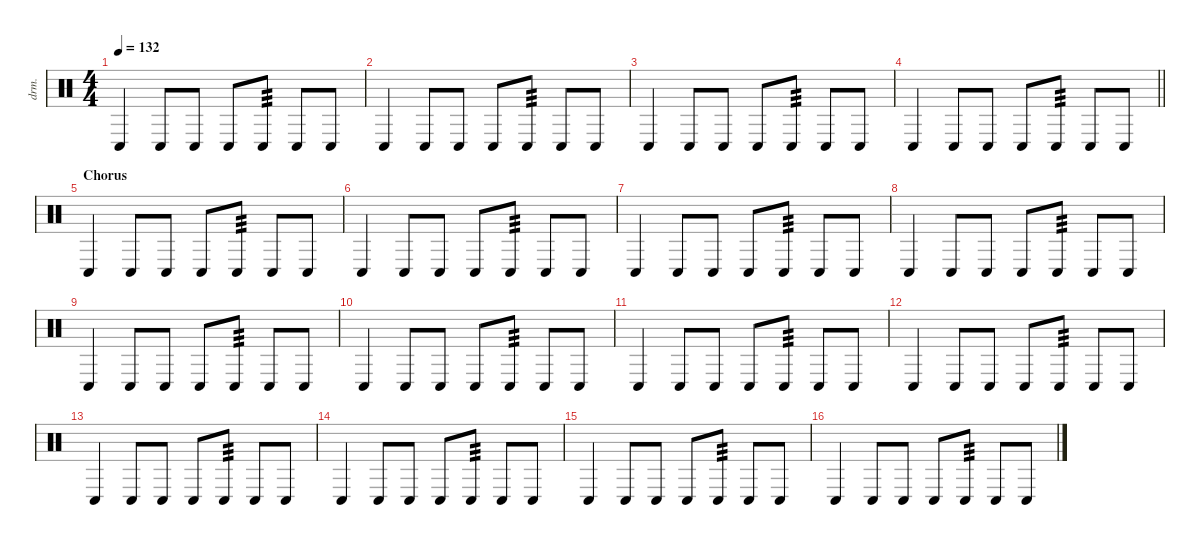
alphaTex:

\defaultSystemsLayout 4
\hideDynamics
\bracketExtendMode nobrackets
\otherSystemsTrackNameOrientation horizontal
\track ("Percussion" "drm.") {instrument percussion}
\staff {score}
\articulation defaults
\ts (4 4)
\tempo 132
\clef neutral
\ks c "Conga low (hit)".4{dy f beam Up} "Conga low (hit)".8{beam Up} "Conga low (hit)".8{beam Up} "Conga low (hit)".8{beam Up} "Conga low (hit)".8{tp 3 beam Up} "Conga low (hit)".8{beam Up} "Conga low (hit)".8{beam Up}
|
"Conga low (hit)".4{beam Up} "Conga low (hit)".8{beam Up} "Conga low (hit)".8{beam Up} "Conga low (hit)".8{beam Up} "Conga low (hit)".8{tp 3 beam Up} "Conga low (hit)".8{beam Up} "Conga low (hit)".8{beam Up} |
"Conga low (hit)".4{beam Up} "Conga low (hit)".8{beam Up} "Conga low (hit)".8{beam Up} "Conga low (hit)".8{beam Up} "Conga low (hit)".8{tp 3 beam Up} "Conga low (hit)".8{beam Up} "Conga low (hit)".8{beam Up} |
\barLineRight lightlight "Conga low (hit)".4{beam Up} "Conga low (hit)".8{beam Up} "Conga low (hit)".8{beam Up} "Conga low (hit)".8{beam Up} "Conga low (hit)".8{tp 3 beam Up} "Conga low (hit)".8{beam Up} "Conga low (hit)".8{beam Up}
|
\section ("" "Chorus")
"Conga low (hit)".4{beam Up} "Conga low (hit)".8{beam Up} "Conga low (hit)".8{beam Up} "Conga low (hit)".8{beam Up} "Conga low (hit)".8{tp 3 beam Up} "Conga low (hit)".8{beam Up} "Conga low (hit)".8{beam Up} |
"Conga low (hit)".4{beam Up} "Conga low (hit)".8{beam Up} "Conga low (hit)".8{beam Up} "Conga low (hit)".8{beam Up} "Conga low (hit)".8{tp 3 beam Up} "Conga low (hit)".8{beam Up} "Conga low (hit)".8{beam Up} |
"Conga low (hit)".4{beam Up} "Conga low (hit)".8{beam Up} "Conga low (hit)".8{beam Up} "Conga low (hit)".8{beam Up} "Conga low (hit)".8{tp 3 beam Up} "Conga low (hit)".8{beam Up} "Conga low (hit)".8{beam Up} |
"Conga low (hit)".4{beam Up} "Conga low (hit)".8{beam Up} "Conga low (hit)".8{beam Up} "Conga low (hit)".8{beam Up} "Conga low (hit)".8{tp 3 beam Up} "Conga low (hit)".8{beam Up} "Conga low (hit)".8{beam Up} |
"Conga low (hit)".4{beam Up} "Conga low (hit)".8{beam Up} "Conga low (hit)".8{beam Up} "Conga low (hit)".8{beam Up} "Conga low (hit)".8{tp 3 beam Up} "Conga low (hit)".8{beam Up} "Conga low (hit)".8{beam Up} |
"Conga low (hit)".4{beam Up} "Conga low (hit)".8{beam Up} "Conga low (hit)".8{beam Up} "Conga low (hit)".8{beam Up} "Conga low (hit)".8{tp 3 beam Up} "Conga low (hit)".8{beam Up} "Conga low (hit)".8{beam Up} |
"Conga low (hit)".4{beam Up} "Conga low (hit)".8{beam Up} "Conga low (hit)".8{beam Up} "Conga low (hit)".8{beam Up} "Conga low (hit)".8{tp 3 beam Up} "Conga low (hit)".8{beam Up} "Conga low (hit)".8{beam Up} |
"Conga low (hit)".4{beam Up} "Conga low (hit)".8{beam Up} "Conga low (hit)".8{beam Up} "Conga low (hit)".8{beam Up} "Conga low (hit)".8{tp 3 beam Up} "Conga low (hit)".8{beam Up} "Conga low (hit)".8{beam Up} |
"Conga low (hit)".4{beam Up} "Conga low (hit)".8{beam Up} "Conga low (hit)".8{beam Up} "Conga low (hit)".8{beam Up} "Conga low (hit)".8{tp 3 beam Up} "Conga low (hit)".8{beam Up} "Conga low (hit)".8{beam Up} |
"Conga low (hit)".4{beam Up} "Conga low (hit)".8{beam Up} "Conga low (hit)".8{beam Up} "Conga low (hit)".8{beam Up} "Conga low (hit)".8{tp 3 beam Up} "Conga low (hit)".8{beam Up} "Conga low (hit)".8{beam Up} |
"Conga low (hit)".4{beam Up} "Conga low (hit)".8{beam Up} "Conga low (hit)".8{beam Up} "Conga low (hit)".8{beam Up} "Conga low (hit)".8{tp 3 beam Up} "Conga low (hit)".8{beam Up} "Conga low (hit)".8{beam Up} |
"Conga low (hit)".4{beam Up} "Conga low (hit)".8{beam Up} "Conga low (hit)".8{beam Up} "Conga low (hit)".8{beam Up} "Conga low (hit)".8{tp 3 beam Up} "Conga low (hit)".8{beam Up} "Conga low (hit)".8{beam Up}
